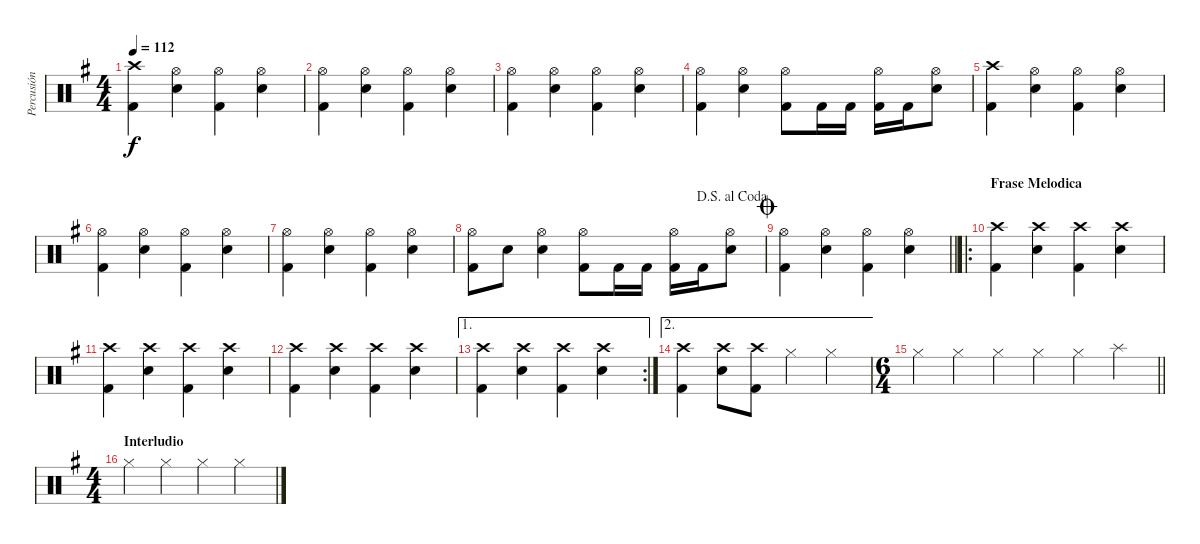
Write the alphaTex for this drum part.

\track ("Percusión" "Percusión") {instrument percussion}
\staff {score}
\articulation defaults
\ts (4 4)
\tempo 112
\clef neutral
\ks g
("Crash high (hit)" "Kick (hit) 2").4{dy f} ("Hi-Hat (open)" "Electric Snare (hit)").4 ("Hi-Hat (open)" "Kick (hit) 2").4 ("Hi-Hat (open)" "Electric Snare (hit)").4 |
("Hi-Hat (open)" "Kick (hit) 2").4 ("Hi-Hat (open)" "Electric Snare (hit)").4 ("Hi-Hat (open)" "Kick (hit) 2").4 ("Hi-Hat (open)" "Electric Snare (hit)").4 |
("Hi-Hat (open)" "Kick (hit) 2").4 ("Hi-Hat (open)" "Electric Snare (hit)").4 ("Hi-Hat (open)" "Kick (hit) 2").4 ("Hi-Hat (open)" "Electric Snare (hit)").4 |
("Hi-Hat (open)" "Kick (hit) 2").4 ("Hi-Hat (open)" "Electric Snare (hit)").4 ("Hi-Hat (open)" "Kick (hit) 2").8 "Kick (hit) 2".16 "Kick (hit) 2".16 ("Hi-Hat (open)" "Kick (hit) 2").16 "Kick (hit) 2".16 ("Hi-Hat (open)" "Electric Snare (hit)").8 |
("Crash high (hit)" "Kick (hit) 2").4 ("Hi-Hat (open)" "Electric Snare (hit)").4 ("Hi-Hat (open)" "Kick (hit) 2").4 ("Hi-Hat (open)" "Electric Snare (hit)").4 |
("Hi-Hat (open)" "Kick (hit) 2").4 ("Hi-Hat (open)" "Electric Snare (hit)").4 ("Hi-Hat (open)" "Kick (hit) 2").4 ("Hi-Hat (open)" "Electric Snare (hit)").4 |
("Hi-Hat (open)" "Kick (hit) 2").4 ("Hi-Hat (open)" "Electric Snare (hit)").4 ("Hi-Hat (open)" "Kick (hit) 2").4 ("Hi-Hat (open)" "Electric Snare (hit)").4 |
\jump dalsegnoalcoda
("Hi-Hat (open)" "Kick (hit) 2").8 "Electric Snare (hit)".8 ("Hi-Hat (open)" "Electric Snare (hit)").4 ("Hi-Hat (open)" "Kick (hit) 2").8 "Kick (hit) 2".16 "Kick (hit) 2".16 ("Hi-Hat (open)" "Kick (hit) 2").16 "Kick (hit) 2".16 ("Hi-Hat (open)" "Electric Snare (hit)").8 |
\jump coda
\barLineRight lightlight
("Hi-Hat (open)" "Kick (hit) 2").4 ("Hi-Hat (open)" "Electric Snare (hit)").4 ("Hi-Hat (open)" "Kick (hit) 2").4 ("Hi-Hat (open)" "Electric Snare (hit)").4 |
\ro
\section ("" "Frase Melodica")
("Crash high (hit)" "Kick (hit) 2").4 ("Crash high (hit)" "Electric Snare (hit)").4 ("Crash high (hit)" "Kick (hit) 2").4 ("Crash high (hit)" "Electric Snare (hit)").4 |
("Crash high (hit)" "Kick (hit) 2").4 ("Crash high (hit)" "Electric Snare (hit)").4 ("Crash high (hit)" "Kick (hit) 2").4 ("Crash high (hit)" "Electric Snare (hit)").4 |
("Crash high (hit)" "Kick (hit) 2").4 ("Crash high (hit)" "Electric Snare (hit)").4 ("Crash high (hit)" "Kick (hit) 2").4 ("Crash high (hit)" "Electric Snare (hit)").4 |
\ae 1
\rc 2
("Crash high (hit)" "Kick (hit) 2").4 ("Crash high (hit)" "Electric Snare (hit)").4 ("Crash high (hit)" "Kick (hit) 2").4 ("Crash high (hit)" "Electric Snare (hit)").4 |
\ae 2
("Crash high (hit)" "Kick (hit) 2").4 ("Crash high (hit)" "Electric Snare (hit)").8 ("Crash high (hit)" "Kick (hit) 2").8 "Hi-Hat (closed)".4 "Hi-Hat (closed)".4 |
\ts (6 4)
\barLineRight lightlight "Hi-Hat (closed)".4 "Hi-Hat (closed)".4 "Hi-Hat (closed)".4 "Hi-Hat (closed)".4 "Hi-Hat (closed)".4 "Splash (hit)".4
|
\ts (4 4)
\section ("" "Interludio")
"Hi-Hat (closed)".4 "Hi-Hat (closed)".4 "Hi-Hat (closed)".4 "Hi-Hat (closed)".4
